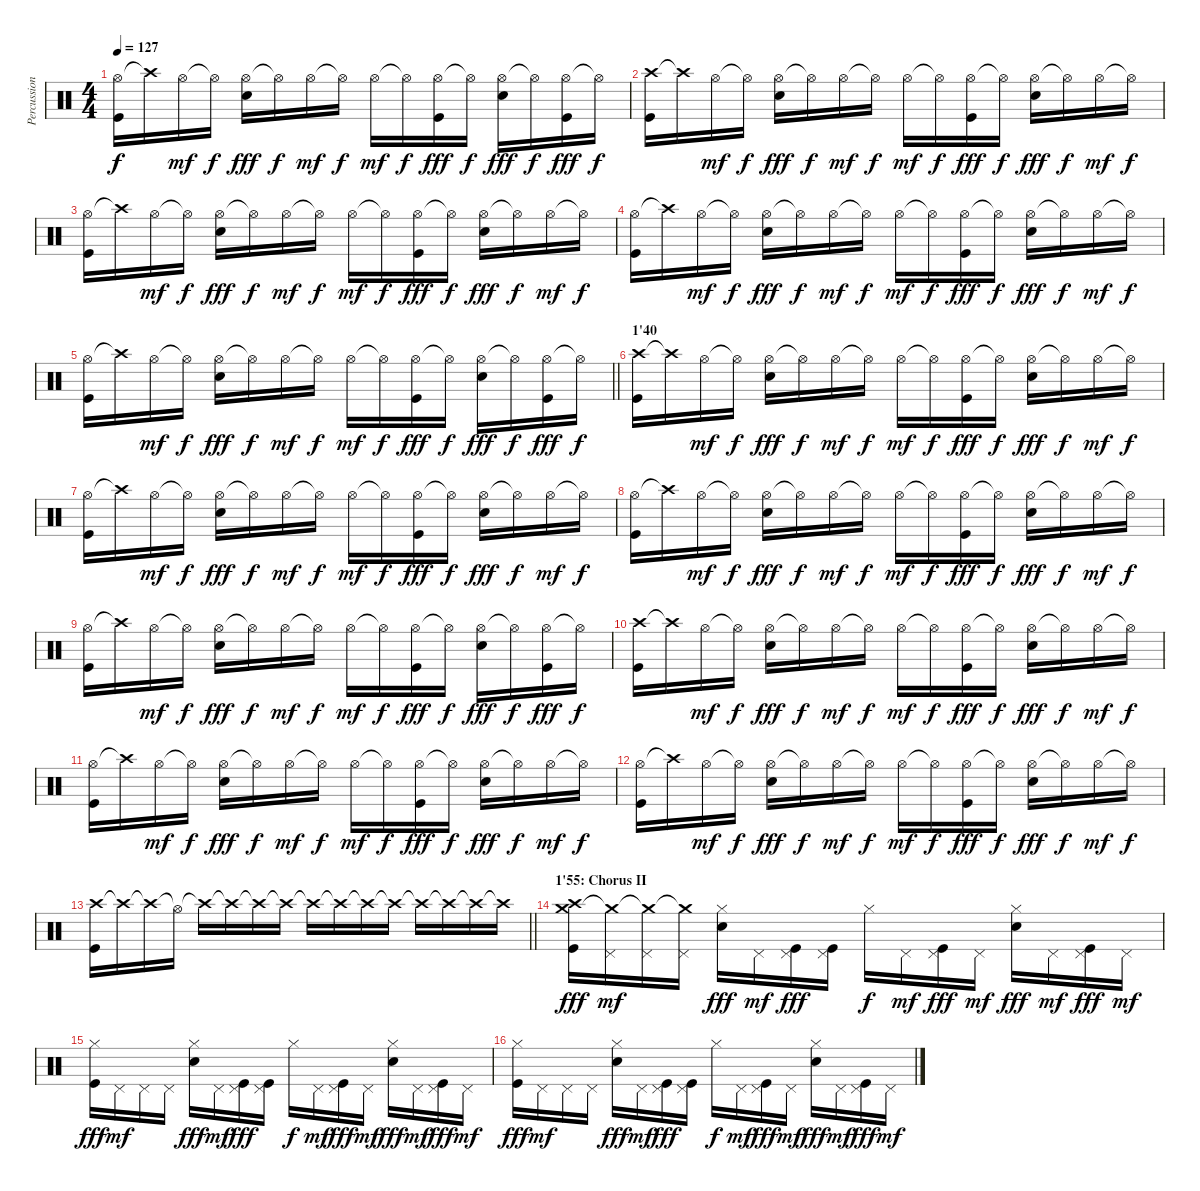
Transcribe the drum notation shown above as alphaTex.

\track ("Percussions" "Percussion") {instrument percussion}
\staff {score}
\articulation defaults
\ts (4 4)
\tempo 127
\clef neutral
\ks c
("Hi-Hat (open)" "Kick (hit)").16{dy f} "Crash high (hit)"{t}.16 "Hi-Hat (open)".16{dy mf} "Hi-Hat (open)"{t}.16{dy f} ("Hi-Hat (open)" "Electric Snare (hit)").16{dy fff} "Hi-Hat (open)"{t}.16{dy f} "Hi-Hat (open)".16{dy mf} "Hi-Hat (open)"{t}.16{dy f} "Hi-Hat (open)".16{dy mf} "Hi-Hat (open)"{t}.16{dy f} ("Hi-Hat (open)" "Kick (hit)").16{dy fff} "Hi-Hat (open)"{t}.16{dy f} ("Hi-Hat (open)" "Electric Snare (hit)").16{dy fff} "Hi-Hat (open)"{t}.16{dy f} ("Hi-Hat (open)" "Kick (hit)").16{dy fff} "Hi-Hat (open)"{t}.16{dy f} |
("Crash high (hit)" "Kick (hit)").16 "Crash high (hit)"{t}.16 "Hi-Hat (open)".16{dy mf} "Hi-Hat (open)"{t}.16{dy f} ("Hi-Hat (open)" "Electric Snare (hit)").16{dy fff} "Hi-Hat (open)"{t}.16{dy f} "Hi-Hat (open)".16{dy mf} "Hi-Hat (open)"{t}.16{dy f} "Hi-Hat (open)".16{dy mf} "Hi-Hat (open)"{t}.16{dy f} ("Hi-Hat (open)" "Kick (hit)").16{dy fff} "Hi-Hat (open)"{t}.16{dy f} ("Hi-Hat (open)" "Electric Snare (hit)").16{dy fff} "Hi-Hat (open)"{t}.16{dy f} "Hi-Hat (open)".16{dy mf} "Hi-Hat (open)"{t}.16{dy f} |
("Hi-Hat (open)" "Kick (hit)").16 "Crash high (hit)"{t}.16 "Hi-Hat (open)".16{dy mf} "Hi-Hat (open)"{t}.16{dy f} ("Hi-Hat (open)" "Electric Snare (hit)").16{dy fff} "Hi-Hat (open)"{t}.16{dy f} "Hi-Hat (open)".16{dy mf} "Hi-Hat (open)"{t}.16{dy f} "Hi-Hat (open)".16{dy mf} "Hi-Hat (open)"{t}.16{dy f} ("Hi-Hat (open)" "Kick (hit)").16{dy fff} "Hi-Hat (open)"{t}.16{dy f} ("Hi-Hat (open)" "Electric Snare (hit)").16{dy fff} "Hi-Hat (open)"{t}.16{dy f} "Hi-Hat (open)".16{dy mf} "Hi-Hat (open)"{t}.16{dy f} |
("Hi-Hat (open)" "Kick (hit)").16 "Crash high (hit)"{t}.16 "Hi-Hat (open)".16{dy mf} "Hi-Hat (open)"{t}.16{dy f} ("Hi-Hat (open)" "Electric Snare (hit)").16{dy fff} "Hi-Hat (open)"{t}.16{dy f} "Hi-Hat (open)".16{dy mf} "Hi-Hat (open)"{t}.16{dy f} "Hi-Hat (open)".16{dy mf} "Hi-Hat (open)"{t}.16{dy f} ("Hi-Hat (open)" "Kick (hit)").16{dy fff} "Hi-Hat (open)"{t}.16{dy f} ("Hi-Hat (open)" "Electric Snare (hit)").16{dy fff} "Hi-Hat (open)"{t}.16{dy f} "Hi-Hat (open)".16{dy mf} "Hi-Hat (open)"{t}.16{dy f} |
\barLineRight lightlight
("Hi-Hat (open)" "Kick (hit)").16 "Crash high (hit)"{t}.16 "Hi-Hat (open)".16{dy mf} "Hi-Hat (open)"{t}.16{dy f} ("Hi-Hat (open)" "Electric Snare (hit)").16{dy fff} "Hi-Hat (open)"{t}.16{dy f} "Hi-Hat (open)".16{dy mf} "Hi-Hat (open)"{t}.16{dy f} "Hi-Hat (open)".16{dy mf} "Hi-Hat (open)"{t}.16{dy f} ("Hi-Hat (open)" "Kick (hit)").16{dy fff} "Hi-Hat (open)"{t}.16{dy f} ("Hi-Hat (open)" "Electric Snare (hit)").16{dy fff} "Hi-Hat (open)"{t}.16{dy f} ("Hi-Hat (open)" "Kick (hit)").16{dy fff} "Hi-Hat (open)"{t}.16{dy f} |
\section ("" "1'40")
("Crash high (hit)" "Kick (hit)").16 "Crash high (hit)"{t}.16 "Hi-Hat (open)".16{dy mf} "Hi-Hat (open)"{t}.16{dy f} ("Hi-Hat (open)" "Electric Snare (hit)").16{dy fff} "Hi-Hat (open)"{t}.16{dy f} "Hi-Hat (open)".16{dy mf} "Hi-Hat (open)"{t}.16{dy f} "Hi-Hat (open)".16{dy mf} "Hi-Hat (open)"{t}.16{dy f} ("Hi-Hat (open)" "Kick (hit)").16{dy fff} "Hi-Hat (open)"{t}.16{dy f} ("Hi-Hat (open)" "Electric Snare (hit)").16{dy fff} "Hi-Hat (open)"{t}.16{dy f} "Hi-Hat (open)".16{dy mf} "Hi-Hat (open)"{t}.16{dy f} |
("Hi-Hat (open)" "Kick (hit)").16 "Crash high (hit)"{t}.16 "Hi-Hat (open)".16{dy mf} "Hi-Hat (open)"{t}.16{dy f} ("Hi-Hat (open)" "Electric Snare (hit)").16{dy fff} "Hi-Hat (open)"{t}.16{dy f} "Hi-Hat (open)".16{dy mf} "Hi-Hat (open)"{t}.16{dy f} "Hi-Hat (open)".16{dy mf} "Hi-Hat (open)"{t}.16{dy f} ("Hi-Hat (open)" "Kick (hit)").16{dy fff} "Hi-Hat (open)"{t}.16{dy f} ("Hi-Hat (open)" "Electric Snare (hit)").16{dy fff} "Hi-Hat (open)"{t}.16{dy f} "Hi-Hat (open)".16{dy mf} "Hi-Hat (open)"{t}.16{dy f} |
("Hi-Hat (open)" "Kick (hit)").16 "Crash high (hit)"{t}.16 "Hi-Hat (open)".16{dy mf} "Hi-Hat (open)"{t}.16{dy f} ("Hi-Hat (open)" "Electric Snare (hit)").16{dy fff} "Hi-Hat (open)"{t}.16{dy f} "Hi-Hat (open)".16{dy mf} "Hi-Hat (open)"{t}.16{dy f} "Hi-Hat (open)".16{dy mf} "Hi-Hat (open)"{t}.16{dy f} ("Hi-Hat (open)" "Kick (hit)").16{dy fff} "Hi-Hat (open)"{t}.16{dy f} ("Hi-Hat (open)" "Electric Snare (hit)").16{dy fff} "Hi-Hat (open)"{t}.16{dy f} "Hi-Hat (open)".16{dy mf} "Hi-Hat (open)"{t}.16{dy f} |
("Hi-Hat (open)" "Kick (hit)").16 "Crash high (hit)"{t}.16 "Hi-Hat (open)".16{dy mf} "Hi-Hat (open)"{t}.16{dy f} ("Hi-Hat (open)" "Electric Snare (hit)").16{dy fff} "Hi-Hat (open)"{t}.16{dy f} "Hi-Hat (open)".16{dy mf} "Hi-Hat (open)"{t}.16{dy f} "Hi-Hat (open)".16{dy mf} "Hi-Hat (open)"{t}.16{dy f} ("Hi-Hat (open)" "Kick (hit)").16{dy fff} "Hi-Hat (open)"{t}.16{dy f} ("Hi-Hat (open)" "Electric Snare (hit)").16{dy fff} "Hi-Hat (open)"{t}.16{dy f} ("Hi-Hat (open)" "Kick (hit)").16{dy fff} "Hi-Hat (open)"{t}.16{dy f} |
("Crash high (hit)" "Kick (hit)").16 "Crash high (hit)"{t}.16 "Hi-Hat (open)".16{dy mf} "Hi-Hat (open)"{t}.16{dy f} ("Hi-Hat (open)" "Electric Snare (hit)").16{dy fff} "Hi-Hat (open)"{t}.16{dy f} "Hi-Hat (open)".16{dy mf} "Hi-Hat (open)"{t}.16{dy f} "Hi-Hat (open)".16{dy mf} "Hi-Hat (open)"{t}.16{dy f} ("Hi-Hat (open)" "Kick (hit)").16{dy fff} "Hi-Hat (open)"{t}.16{dy f} ("Hi-Hat (open)" "Electric Snare (hit)").16{dy fff} "Hi-Hat (open)"{t}.16{dy f} "Hi-Hat (open)".16{dy mf} "Hi-Hat (open)"{t}.16{dy f} |
("Hi-Hat (open)" "Kick (hit)").16 "Crash high (hit)"{t}.16 "Hi-Hat (open)".16{dy mf} "Hi-Hat (open)"{t}.16{dy f} ("Hi-Hat (open)" "Electric Snare (hit)").16{dy fff} "Hi-Hat (open)"{t}.16{dy f} "Hi-Hat (open)".16{dy mf} "Hi-Hat (open)"{t}.16{dy f} "Hi-Hat (open)".16{dy mf} "Hi-Hat (open)"{t}.16{dy f} ("Hi-Hat (open)" "Kick (hit)").16{dy fff} "Hi-Hat (open)"{t}.16{dy f} ("Hi-Hat (open)" "Electric Snare (hit)").16{dy fff} "Hi-Hat (open)"{t}.16{dy f} "Hi-Hat (open)".16{dy mf} "Hi-Hat (open)"{t}.16{dy f} |
("Hi-Hat (open)" "Kick (hit)").16 "Crash high (hit)"{t}.16 "Hi-Hat (open)".16{dy mf} "Hi-Hat (open)"{t}.16{dy f} ("Hi-Hat (open)" "Electric Snare (hit)").16{dy fff} "Hi-Hat (open)"{t}.16{dy f} "Hi-Hat (open)".16{dy mf} "Hi-Hat (open)"{t}.16{dy f} "Hi-Hat (open)".16{dy mf} "Hi-Hat (open)"{t}.16{dy f} ("Hi-Hat (open)" "Kick (hit)").16{dy fff} "Hi-Hat (open)"{t}.16{dy f} ("Hi-Hat (open)" "Electric Snare (hit)").16{dy fff} "Hi-Hat (open)"{t}.16{dy f} "Hi-Hat (open)".16{dy mf} "Hi-Hat (open)"{t}.16{dy f} |
\barLineRight lightlight
("Crash high (hit)" "Kick (hit)").16 "Crash high (hit)"{t}.16 "Crash high (hit)"{t}.16 "Hi-Hat (open)"{t}.16 "Crash high (hit)"{t}.16 "Crash high (hit)"{t}.16 "Crash high (hit)"{t}.16 "Crash high (hit)"{t}.16 "Crash high (hit)"{t}.16 "Crash high (hit)"{t}.16 "Crash high (hit)"{t}.16 "Crash high (hit)"{t}.16 "Crash high (hit)"{t}.16 "Crash high (hit)"{t}.16 "Crash high (hit)"{t}.16 "Crash high (hit)"{t}.16 |
\section ("" "1'55: Chorus II")
("Crash high (hit)" "Crash medium (hit)" "Kick (hit)").16{dy fff} ("Pedal Hi-Hat (hit)" "Crash medium (hit)"{t}).16{dy mf} ("Pedal Hi-Hat (hit)" "Crash medium (hit)"{t}).16 ("Pedal Hi-Hat (hit)" "Crash medium (hit)"{t}).16 ("Hi-Hat (closed)" "Electric Snare (hit)").16{dy fff} "Pedal Hi-Hat (hit)".16{dy mf} ("Pedal Hi-Hat (hit)" "Kick (hit)").16{dy fff} ("Pedal Hi-Hat (hit)" "Kick (hit)").16 "Hi-Hat (closed)".16{dy f} "Pedal Hi-Hat (hit)".16{dy mf} ("Pedal Hi-Hat (hit)" "Kick (hit)").16{dy fff} "Pedal Hi-Hat (hit)".16{dy mf} ("Hi-Hat (closed)" "Electric Snare (hit)").16{dy fff} "Pedal Hi-Hat (hit)".16{dy mf} ("Pedal Hi-Hat (hit)" "Kick (hit)").16{dy fff} "Pedal Hi-Hat (hit)".16{dy mf} |
("Hi-Hat (closed)" "Kick (hit)").16{dy fff} "Pedal Hi-Hat (hit)".16{dy mf} "Pedal Hi-Hat (hit)".16 "Pedal Hi-Hat (hit)".16 ("Hi-Hat (closed)" "Electric Snare (hit)").16{dy fff} "Pedal Hi-Hat (hit)".16{dy mf} ("Pedal Hi-Hat (hit)" "Kick (hit)").16{dy fff} ("Pedal Hi-Hat (hit)" "Kick (hit)").16 "Hi-Hat (closed)".16{dy f} "Pedal Hi-Hat (hit)".16{dy mf} ("Pedal Hi-Hat (hit)" "Kick (hit)").16{dy fff} "Pedal Hi-Hat (hit)".16{dy mf} ("Hi-Hat (closed)" "Electric Snare (hit)").16{dy fff} "Pedal Hi-Hat (hit)".16{dy mf} ("Pedal Hi-Hat (hit)" "Kick (hit)").16{dy fff} "Pedal Hi-Hat (hit)".16{dy mf} |
("Hi-Hat (closed)" "Kick (hit)").16{dy fff} "Pedal Hi-Hat (hit)".16{dy mf} "Pedal Hi-Hat (hit)".16 "Pedal Hi-Hat (hit)".16 ("Hi-Hat (closed)" "Electric Snare (hit)").16{dy fff} "Pedal Hi-Hat (hit)".16{dy mf} ("Pedal Hi-Hat (hit)" "Kick (hit)").16{dy fff} ("Pedal Hi-Hat (hit)" "Kick (hit)").16 "Hi-Hat (closed)".16{dy f} "Pedal Hi-Hat (hit)".16{dy mf} ("Pedal Hi-Hat (hit)" "Kick (hit)").16{dy fff} "Pedal Hi-Hat (hit)".16{dy mf} ("Hi-Hat (closed)" "Electric Snare (hit)").16{dy fff} "Pedal Hi-Hat (hit)".16{dy mf} ("Pedal Hi-Hat (hit)" "Kick (hit)").16{dy fff} "Pedal Hi-Hat (hit)".16{dy mf}
